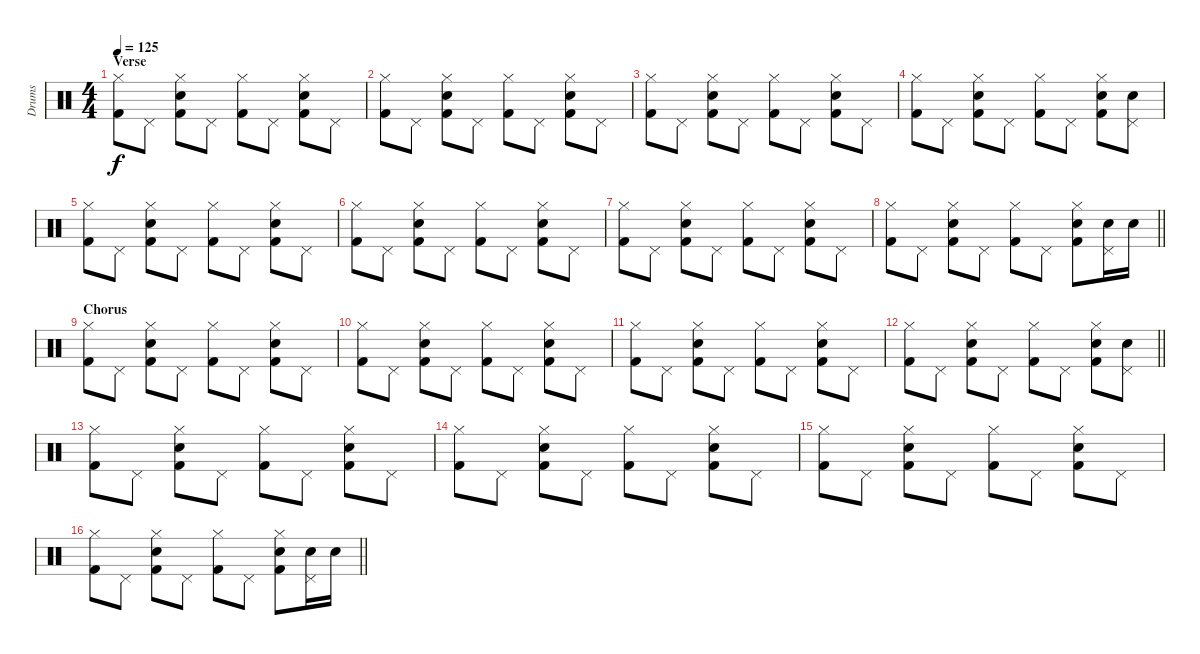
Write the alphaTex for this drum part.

\track ("Drums" "Drums") {instrument percussion}
\staff {score}
\articulation defaults
\ts (4 4)
\section ("" "Verse")
\tempo 125
\clef neutral
\ks c
("Hi-Hat (closed)" "Kick (hit) 2").8{dy f} "Pedal Hi-Hat (hit)".8 ("Hi-Hat (closed)" "Snare (hit) 2" "Kick (hit) 2").8 "Pedal Hi-Hat (hit)".8 ("Hi-Hat (closed)" "Kick (hit) 2").8 "Pedal Hi-Hat (hit)".8 ("Hi-Hat (closed)" "Snare (hit) 2" "Kick (hit) 2").8 "Pedal Hi-Hat (hit)".8 |
("Hi-Hat (closed)" "Kick (hit) 2").8 "Pedal Hi-Hat (hit)".8 ("Hi-Hat (closed)" "Snare (hit) 2" "Kick (hit) 2").8 "Pedal Hi-Hat (hit)".8 ("Hi-Hat (closed)" "Kick (hit) 2").8 "Pedal Hi-Hat (hit)".8 ("Hi-Hat (closed)" "Snare (hit) 2" "Kick (hit) 2").8 "Pedal Hi-Hat (hit)".8 |
("Hi-Hat (closed)" "Kick (hit) 2").8 "Pedal Hi-Hat (hit)".8 ("Hi-Hat (closed)" "Snare (hit) 2" "Kick (hit) 2").8 "Pedal Hi-Hat (hit)".8 ("Hi-Hat (closed)" "Kick (hit) 2").8 "Pedal Hi-Hat (hit)".8 ("Hi-Hat (closed)" "Snare (hit) 2" "Kick (hit) 2").8 "Pedal Hi-Hat (hit)".8 |
("Hi-Hat (closed)" "Kick (hit) 2").8 "Pedal Hi-Hat (hit)".8 ("Hi-Hat (closed)" "Snare (hit) 2" "Kick (hit) 2").8 "Pedal Hi-Hat (hit)".8 ("Hi-Hat (closed)" "Kick (hit) 2").8 "Pedal Hi-Hat (hit)".8 ("Hi-Hat (closed)" "Snare (hit) 2" "Kick (hit) 2").8 ("Pedal Hi-Hat (hit)" "Snare (hit) 2").8 |
("Hi-Hat (closed)" "Kick (hit) 2").8 "Pedal Hi-Hat (hit)".8 ("Hi-Hat (closed)" "Snare (hit) 2" "Kick (hit) 2").8 "Pedal Hi-Hat (hit)".8 ("Hi-Hat (closed)" "Kick (hit) 2").8 "Pedal Hi-Hat (hit)".8 ("Hi-Hat (closed)" "Snare (hit) 2" "Kick (hit) 2").8 "Pedal Hi-Hat (hit)".8 |
("Hi-Hat (closed)" "Kick (hit) 2").8 "Pedal Hi-Hat (hit)".8 ("Hi-Hat (closed)" "Snare (hit) 2" "Kick (hit) 2").8 "Pedal Hi-Hat (hit)".8 ("Hi-Hat (closed)" "Kick (hit) 2").8 "Pedal Hi-Hat (hit)".8 ("Hi-Hat (closed)" "Snare (hit) 2" "Kick (hit) 2").8 "Pedal Hi-Hat (hit)".8 |
("Hi-Hat (closed)" "Kick (hit) 2").8 "Pedal Hi-Hat (hit)".8 ("Hi-Hat (closed)" "Snare (hit) 2" "Kick (hit) 2").8 "Pedal Hi-Hat (hit)".8 ("Hi-Hat (closed)" "Kick (hit) 2").8 "Pedal Hi-Hat (hit)".8 ("Hi-Hat (closed)" "Snare (hit) 2" "Kick (hit) 2").8 "Pedal Hi-Hat (hit)".8 |
\barLineRight lightlight
("Hi-Hat (closed)" "Kick (hit) 2").8 "Pedal Hi-Hat (hit)".8 ("Hi-Hat (closed)" "Snare (hit) 2" "Kick (hit) 2").8 "Pedal Hi-Hat (hit)".8 ("Hi-Hat (closed)" "Kick (hit) 2").8 "Pedal Hi-Hat (hit)".8 ("Hi-Hat (closed)" "Snare (hit) 2" "Kick (hit) 2").8 ("Pedal Hi-Hat (hit)" "Snare (hit) 2").16 "Snare (hit) 2".16 |
\section ("" "Chorus")
("Hi-Hat (closed)" "Kick (hit) 2").8 "Pedal Hi-Hat (hit)".8 ("Hi-Hat (closed)" "Snare (hit) 2" "Kick (hit) 2").8 "Pedal Hi-Hat (hit)".8 ("Hi-Hat (closed)" "Kick (hit) 2").8 "Pedal Hi-Hat (hit)".8 ("Hi-Hat (closed)" "Snare (hit) 2" "Kick (hit) 2").8 "Pedal Hi-Hat (hit)".8 |
("Hi-Hat (closed)" "Kick (hit) 2").8 "Pedal Hi-Hat (hit)".8 ("Hi-Hat (closed)" "Snare (hit) 2" "Kick (hit) 2").8 "Pedal Hi-Hat (hit)".8 ("Hi-Hat (closed)" "Kick (hit) 2").8 "Pedal Hi-Hat (hit)".8 ("Hi-Hat (closed)" "Snare (hit) 2" "Kick (hit) 2").8 "Pedal Hi-Hat (hit)".8 |
("Hi-Hat (closed)" "Kick (hit) 2").8 "Pedal Hi-Hat (hit)".8 ("Hi-Hat (closed)" "Snare (hit) 2" "Kick (hit) 2").8 "Pedal Hi-Hat (hit)".8 ("Hi-Hat (closed)" "Kick (hit) 2").8 "Pedal Hi-Hat (hit)".8 ("Hi-Hat (closed)" "Snare (hit) 2" "Kick (hit) 2").8 "Pedal Hi-Hat (hit)".8 |
\barLineRight lightlight
("Hi-Hat (closed)" "Kick (hit) 2").8 "Pedal Hi-Hat (hit)".8 ("Hi-Hat (closed)" "Snare (hit) 2" "Kick (hit) 2").8 "Pedal Hi-Hat (hit)".8 ("Hi-Hat (closed)" "Kick (hit) 2").8 "Pedal Hi-Hat (hit)".8 ("Hi-Hat (closed)" "Snare (hit) 2" "Kick (hit) 2").8 ("Pedal Hi-Hat (hit)" "Snare (hit) 2").8 |
("Hi-Hat (closed)" "Kick (hit) 2").8 "Pedal Hi-Hat (hit)".8 ("Hi-Hat (closed)" "Snare (hit) 2" "Kick (hit) 2").8 "Pedal Hi-Hat (hit)".8 ("Hi-Hat (closed)" "Kick (hit) 2").8 "Pedal Hi-Hat (hit)".8 ("Hi-Hat (closed)" "Snare (hit) 2" "Kick (hit) 2").8 "Pedal Hi-Hat (hit)".8 |
("Hi-Hat (closed)" "Kick (hit) 2").8 "Pedal Hi-Hat (hit)".8 ("Hi-Hat (closed)" "Snare (hit) 2" "Kick (hit) 2").8 "Pedal Hi-Hat (hit)".8 ("Hi-Hat (closed)" "Kick (hit) 2").8 "Pedal Hi-Hat (hit)".8 ("Hi-Hat (closed)" "Snare (hit) 2" "Kick (hit) 2").8 "Pedal Hi-Hat (hit)".8 |
("Hi-Hat (closed)" "Kick (hit) 2").8 "Pedal Hi-Hat (hit)".8 ("Hi-Hat (closed)" "Snare (hit) 2" "Kick (hit) 2").8 "Pedal Hi-Hat (hit)".8 ("Hi-Hat (closed)" "Kick (hit) 2").8 "Pedal Hi-Hat (hit)".8 ("Hi-Hat (closed)" "Snare (hit) 2" "Kick (hit) 2").8 "Pedal Hi-Hat (hit)".8 |
\barLineRight lightlight
("Hi-Hat (closed)" "Kick (hit) 2").8 "Pedal Hi-Hat (hit)".8 ("Hi-Hat (closed)" "Snare (hit) 2" "Kick (hit) 2").8 "Pedal Hi-Hat (hit)".8 ("Hi-Hat (closed)" "Kick (hit) 2").8 "Pedal Hi-Hat (hit)".8 ("Hi-Hat (closed)" "Snare (hit) 2" "Kick (hit) 2").8 ("Pedal Hi-Hat (hit)" "Snare (hit) 2").16 "Snare (hit) 2".16
